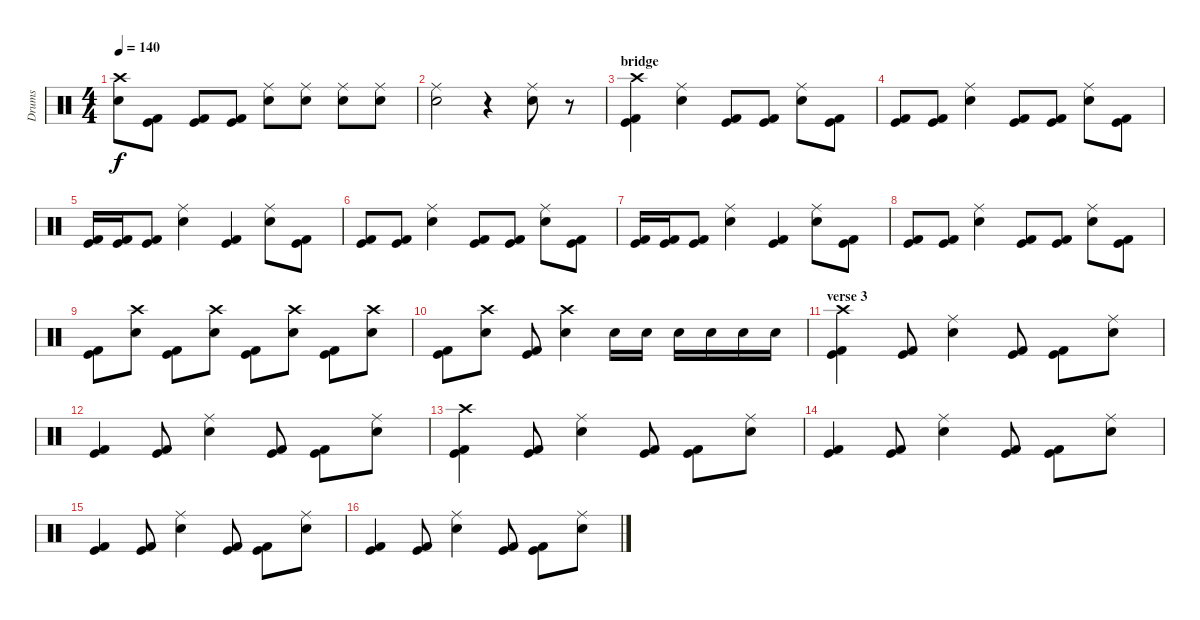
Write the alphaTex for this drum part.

\track ("Drums" "Drums") {instrument percussion}
\staff {score}
\articulation defaults
\ts (4 4)
\tempo 140
\clef neutral
\ks c
("Crash high (hit)" "Electric Snare (hit)").8{dy f} ("Kick (hit)" "Kick (hit) 2").8 ("Kick (hit)" "Kick (hit) 2").8 ("Kick (hit)" "Kick (hit) 2").8 ("Ride (middle)" "Electric Snare (hit)").8 ("Ride (middle)" "Electric Snare (hit)").8 ("Ride (middle)" "Electric Snare (hit)").8 ("Ride (middle)" "Electric Snare (hit)").8 |
("Ride (middle)" "Electric Snare (hit)").2 r.4 ("Ride (middle)" "Electric Snare (hit)").8 r.8 |
\section ("" "bridge")
("Crash high (hit)" "Kick (hit)" "Kick (hit) 2").4 ("Ride (middle)" "Electric Snare (hit)").4 ("Kick (hit)" "Kick (hit) 2").8 ("Kick (hit)" "Kick (hit) 2").8 ("Ride (middle)" "Electric Snare (hit)").8 ("Kick (hit)" "Kick (hit) 2").8 |
("Kick (hit)" "Kick (hit) 2").8 ("Kick (hit)" "Kick (hit) 2").8 ("Ride (middle)" "Electric Snare (hit)").4 ("Kick (hit)" "Kick (hit) 2").8 ("Kick (hit)" "Kick (hit) 2").8 ("Ride (middle)" "Electric Snare (hit)").8 ("Kick (hit)" "Kick (hit) 2").8 |
("Kick (hit)" "Kick (hit) 2").16 ("Kick (hit)" "Kick (hit) 2").16 ("Kick (hit)" "Kick (hit) 2").8 ("Ride (middle)" "Electric Snare (hit)").4 ("Kick (hit)" "Kick (hit) 2").4 ("Ride (middle)" "Electric Snare (hit)").8 ("Kick (hit)" "Kick (hit) 2").8 |
("Kick (hit)" "Kick (hit) 2").8 ("Kick (hit)" "Kick (hit) 2").8 ("Ride (middle)" "Electric Snare (hit)").4 ("Kick (hit)" "Kick (hit) 2").8 ("Kick (hit)" "Kick (hit) 2").8 ("Ride (middle)" "Electric Snare (hit)").8 ("Kick (hit)" "Kick (hit) 2").8 |
("Kick (hit)" "Kick (hit) 2").16 ("Kick (hit)" "Kick (hit) 2").16 ("Kick (hit)" "Kick (hit) 2").8 ("Ride (middle)" "Electric Snare (hit)").4 ("Kick (hit)" "Kick (hit) 2").4 ("Ride (middle)" "Electric Snare (hit)").8 ("Kick (hit)" "Kick (hit) 2").8 |
("Kick (hit)" "Kick (hit) 2").8 ("Kick (hit)" "Kick (hit) 2").8 ("Ride (middle)" "Electric Snare (hit)").4 ("Kick (hit)" "Kick (hit) 2").8 ("Kick (hit)" "Kick (hit) 2").8 ("Ride (middle)" "Electric Snare (hit)").8 ("Kick (hit)" "Kick (hit) 2").8 |
("Kick (hit)" "Kick (hit) 2").8 ("Crash high (hit)" "Electric Snare (hit)").8 ("Kick (hit)" "Kick (hit) 2").8 ("Crash high (hit)" "Electric Snare (hit)").8 ("Kick (hit)" "Kick (hit) 2").8 ("Crash high (hit)" "Electric Snare (hit)").8 ("Kick (hit)" "Kick (hit) 2").8 ("Crash high (hit)" "Electric Snare (hit)").8 |
("Kick (hit)" "Kick (hit) 2").8 ("Crash high (hit)" "Electric Snare (hit)").8 ("Kick (hit)" "Kick (hit) 2").8 ("Crash high (hit)" "Electric Snare (hit)").4 "Electric Snare (hit)".16 "Electric Snare (hit)".16 "Electric Snare (hit)".16 "Electric Snare (hit)".16 "Electric Snare (hit)".16 "Electric Snare (hit)".16 |
\section ("" "verse 3")
("Crash high (hit)" "Kick (hit)" "Kick (hit) 2").4 ("Kick (hit)" "Kick (hit) 2").8 ("Ride (middle)" "Electric Snare (hit)").4 ("Kick (hit)" "Kick (hit) 2").8 ("Kick (hit)" "Kick (hit) 2").8 ("Ride (middle)" "Electric Snare (hit)").8 |
("Kick (hit)" "Kick (hit) 2").4 ("Kick (hit)" "Kick (hit) 2").8 ("Ride (middle)" "Electric Snare (hit)").4 ("Kick (hit)" "Kick (hit) 2").8 ("Kick (hit)" "Kick (hit) 2").8 ("Ride (middle)" "Electric Snare (hit)").8 |
("Crash high (hit)" "Kick (hit)" "Kick (hit) 2").4 ("Kick (hit)" "Kick (hit) 2").8 ("Ride (middle)" "Electric Snare (hit)").4 ("Kick (hit)" "Kick (hit) 2").8 ("Kick (hit)" "Kick (hit) 2").8 ("Ride (middle)" "Electric Snare (hit)").8 |
("Kick (hit)" "Kick (hit) 2").4 ("Kick (hit)" "Kick (hit) 2").8 ("Ride (middle)" "Electric Snare (hit)").4 ("Kick (hit)" "Kick (hit) 2").8 ("Kick (hit)" "Kick (hit) 2").8 ("Ride (middle)" "Electric Snare (hit)").8 |
("Kick (hit)" "Kick (hit) 2").4 ("Kick (hit)" "Kick (hit) 2").8 ("Ride (middle)" "Electric Snare (hit)").4 ("Kick (hit)" "Kick (hit) 2").8 ("Kick (hit)" "Kick (hit) 2").8 ("Ride (middle)" "Electric Snare (hit)").8 |
("Kick (hit)" "Kick (hit) 2").4 ("Kick (hit)" "Kick (hit) 2").8 ("Ride (middle)" "Electric Snare (hit)").4 ("Kick (hit)" "Kick (hit) 2").8 ("Kick (hit)" "Kick (hit) 2").8 ("Ride (middle)" "Electric Snare (hit)").8
